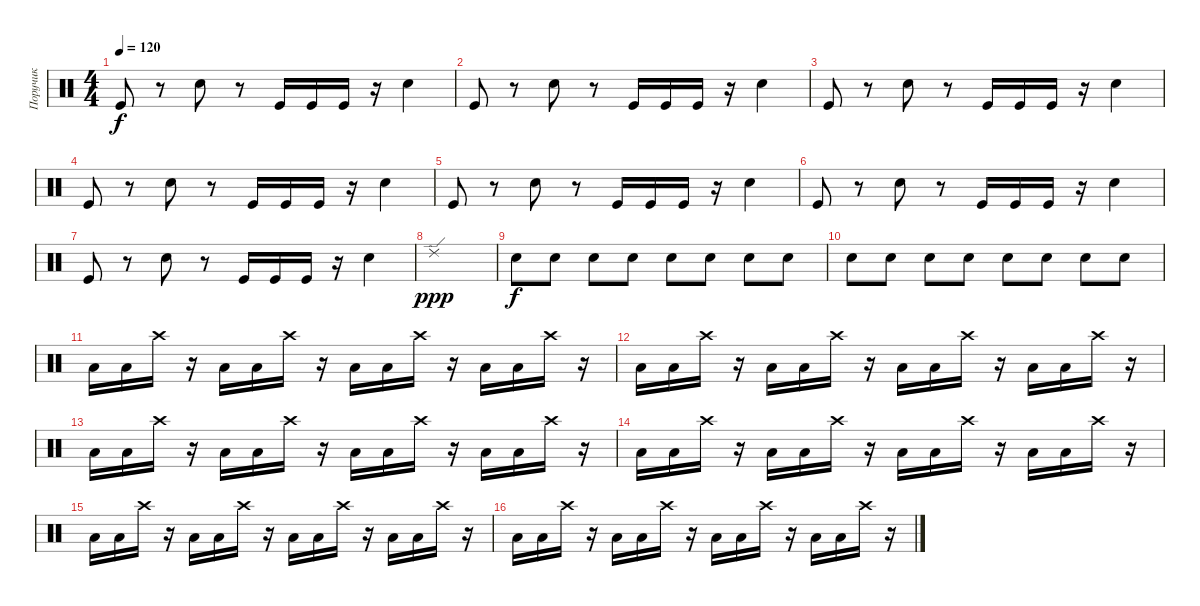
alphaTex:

\track ("Поручик" "Поручик") {instrument percussion}
\staff {score}
\articulation defaults
\ts (4 4)
\tempo 120
\clef neutral
\ks c "Kick (hit)".8{dy f}
r.8 "Snare (hit) 2".8 r.8 "Kick (hit)".16 "Kick (hit)".16 "Kick (hit)".16 r.16 "Snare (hit) 2".4 |
"Kick (hit)".8 r.8 "Snare (hit) 2".8 r.8 "Kick (hit)".16 "Kick (hit)".16 "Kick (hit)".16 r.16 "Snare (hit) 2".4 |
"Kick (hit)".8 r.8 "Snare (hit) 2".8 r.8 "Kick (hit)".16 "Kick (hit)".16 "Kick (hit)".16 r.16 "Snare (hit) 2".4 |
"Kick (hit)".8 r.8 "Snare (hit) 2".8 r.8 "Kick (hit)".16 "Kick (hit)".16 "Kick (hit)".16 r.16 "Snare (hit) 2".4 |
"Kick (hit)".8 r.8 "Snare (hit) 2".8 r.8 "Kick (hit)".16 "Kick (hit)".16 "Kick (hit)".16 r.16 "Snare (hit) 2".4 |
"Kick (hit)".8 r.8 "Snare (hit) 2".8 r.8 "Kick (hit)".16 "Kick (hit)".16 "Kick (hit)".16 r.16 "Snare (hit) 2".4 |
"Kick (hit)".8 r.8 "Snare (hit) 2".8 r.8 "Kick (hit)".16 "Kick (hit)".16 "Kick (hit)".16 r.16 "Snare (hit) 2".4 |
"Ride (edge) 2".1{dy ppp} |
"Snare (hit) 2".8{dy f} "Snare (hit) 2".8 "Snare (hit) 2".8 "Snare (hit) 2".8 "Snare (hit) 2".8 "Snare (hit) 2".8 "Snare (hit) 2".8 "Snare (hit) 2".8 |
"Snare (hit) 2".8 "Snare (hit) 2".8 "Snare (hit) 2".8 "Snare (hit) 2".8 "Snare (hit) 2".8 "Snare (hit) 2".8 "Snare (hit) 2".8 "Snare (hit) 2".8 |
"Low Tom (hit)".16 "Low Tom (hit)".16 "Crash high (hit)".16 r.16 "Low Tom (hit)".16 "Low Tom (hit)".16 "Crash high (hit)".16 r.16 "Low Tom (hit)".16 "Low Tom (hit)".16 "Crash high (hit)".16 r.16 "Low Tom (hit)".16 "Low Tom (hit)".16 "Crash high (hit)".16 r.16 |
"Low Tom (hit)".16 "Low Tom (hit)".16 "Crash high (hit)".16 r.16 "Low Tom (hit)".16 "Low Tom (hit)".16 "Crash high (hit)".16 r.16 "Low Tom (hit)".16 "Low Tom (hit)".16 "Crash high (hit)".16 r.16 "Low Tom (hit)".16 "Low Tom (hit)".16 "Crash high (hit)".16 r.16 |
"Low Tom (hit)".16 "Low Tom (hit)".16 "Crash high (hit)".16 r.16 "Low Tom (hit)".16 "Low Tom (hit)".16 "Crash high (hit)".16 r.16 "Low Tom (hit)".16 "Low Tom (hit)".16 "Crash high (hit)".16 r.16 "Low Tom (hit)".16 "Low Tom (hit)".16 "Crash high (hit)".16 r.16 |
"Low Tom (hit)".16 "Low Tom (hit)".16 "Crash high (hit)".16 r.16 "Low Tom (hit)".16 "Low Tom (hit)".16 "Crash high (hit)".16 r.16 "Low Tom (hit)".16 "Low Tom (hit)".16 "Crash high (hit)".16 r.16 "Low Tom (hit)".16 "Low Tom (hit)".16 "Crash high (hit)".16 r.16 |
"Low Tom (hit)".16 "Low Tom (hit)".16 "Crash high (hit)".16 r.16 "Low Tom (hit)".16 "Low Tom (hit)".16 "Crash high (hit)".16 r.16 "Low Tom (hit)".16 "Low Tom (hit)".16 "Crash high (hit)".16 r.16 "Low Tom (hit)".16 "Low Tom (hit)".16 "Crash high (hit)".16 r.16 |
"Low Tom (hit)".16 "Low Tom (hit)".16 "Crash high (hit)".16 r.16 "Low Tom (hit)".16 "Low Tom (hit)".16 "Crash high (hit)".16 r.16 "Low Tom (hit)".16 "Low Tom (hit)".16 "Crash high (hit)".16 r.16 "Low Tom (hit)".16 "Low Tom (hit)".16 "Crash high (hit)".16 r.16
